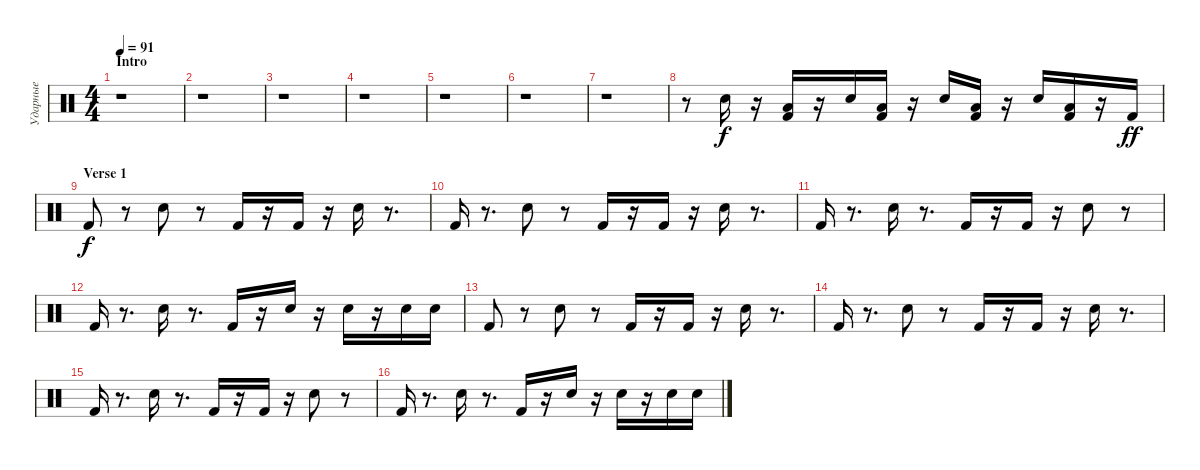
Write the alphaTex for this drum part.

\track ("Ударные" "Ударные") {instrument percussion}
\staff {score}
\articulation defaults
\ts (4 4)
\section ("" "Intro")
\tempo 91
\clef neutral
\ks c
r.1{dy f} |
r.1 |
r.1 |
r.1 |
r.1 |
r.1 |
r.1 |
r.8 "Electric Snare (hit)".16 r.16 ("Low Floor Tom (hit)" "Kick (hit) 2").16 r.16 "Electric Snare (hit)".16 ("Low Floor Tom (hit)" "Kick (hit) 2").16 r.16 "Electric Snare (hit)".16 ("Low Floor Tom (hit)" "Kick (hit) 2").16 r.16 "Electric Snare (hit)".16 ("Low Floor Tom (hit)" "Kick (hit) 2").16 r.16 "Kick (hit) 2".16{dy ff} |
\section ("" "Verse 1")
"Kick (hit) 2".8{dy f} r.8 "Electric Snare (hit)".8 r.8 "Kick (hit) 2".16 r.16 "Kick (hit) 2".16 r.16 "Electric Snare (hit)".16 r.8{d} |
"Kick (hit) 2".16 r.8{d} "Electric Snare (hit)".8 r.8 "Kick (hit) 2".16 r.16 "Kick (hit) 2".16 r.16 "Electric Snare (hit)".16 r.8{d} |
"Kick (hit) 2".16 r.8{d} "Electric Snare (hit)".16 r.8{d} "Kick (hit) 2".16 r.16 "Kick (hit) 2".16 r.16 "Electric Snare (hit)".8 r.8 |
"Kick (hit) 2".16 r.8{d} "Electric Snare (hit)".16 r.8{d} "Kick (hit) 2".16 r.16 "Electric Snare (hit)".16 r.16 "Electric Snare (hit)".16 r.16 "Electric Snare (hit)".16 "Electric Snare (hit)".16 |
"Kick (hit) 2".8 r.8 "Electric Snare (hit)".8 r.8 "Kick (hit) 2".16 r.16 "Kick (hit) 2".16 r.16 "Electric Snare (hit)".16 r.8{d} |
"Kick (hit) 2".16 r.8{d} "Electric Snare (hit)".8 r.8 "Kick (hit) 2".16 r.16 "Kick (hit) 2".16 r.16 "Electric Snare (hit)".16 r.8{d} |
"Kick (hit) 2".16 r.8{d} "Electric Snare (hit)".16 r.8{d} "Kick (hit) 2".16 r.16 "Kick (hit) 2".16 r.16 "Electric Snare (hit)".8 r.8 |
"Kick (hit) 2".16 r.8{d} "Electric Snare (hit)".16 r.8{d} "Kick (hit) 2".16 r.16 "Electric Snare (hit)".16 r.16 "Electric Snare (hit)".16 r.16 "Electric Snare (hit)".16 "Electric Snare (hit)".16
